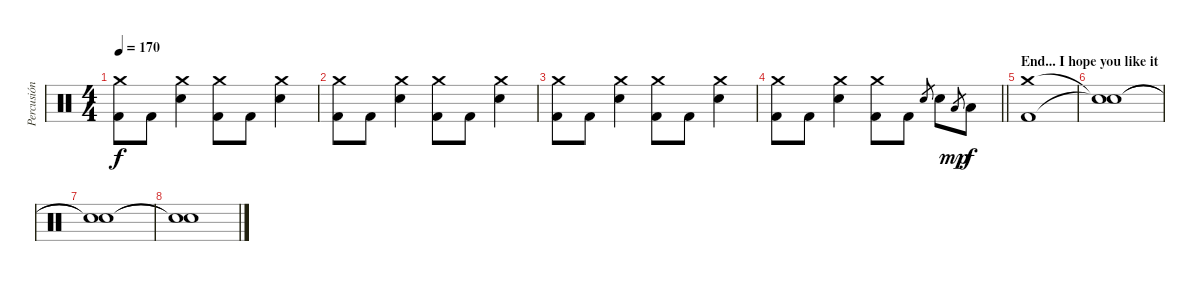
\track ("Percusión" "Percusión") {instrument percussion}
\staff {score}
\articulation defaults
\ts (4 4)
\tempo 170
\clef neutral
\ks c
("Crash medium (hit)" "Kick (hit) 2").8{dy f} "Kick (hit) 2".8 ("Crash medium (hit)" "Electric Snare (hit)").4 ("Crash medium (hit)" "Kick (hit) 2").8 "Kick (hit) 2".8 ("Crash medium (hit)" "Electric Snare (hit)").4 |
("Crash medium (hit)" "Kick (hit) 2").8 "Kick (hit) 2".8 ("Crash medium (hit)" "Electric Snare (hit)").4 ("Crash medium (hit)" "Kick (hit) 2").8 "Kick (hit) 2".8 ("Crash medium (hit)" "Electric Snare (hit)").4 |
("Crash medium (hit)" "Kick (hit) 2").8 "Kick (hit) 2".8 ("Crash medium (hit)" "Electric Snare (hit)").4 ("Crash medium (hit)" "Kick (hit) 2").8 "Kick (hit) 2".8 ("Crash medium (hit)" "Electric Snare (hit)").4 |
\barLineRight lightlight
("Crash medium (hit)" "Kick (hit) 2").8 "Kick (hit) 2".8 ("Crash medium (hit)" "Electric Snare (hit)").4 ("Crash medium (hit)" "Kick (hit) 2").8 "Kick (hit) 2".8 "Electric Snare (hit)".8{gr} "Electric Snare (hit)".8 "Low Tom (hit)".8{gr dy mp} "Low Tom (hit)".8{dy f} |
\section ("" "End... I hope you like it")
("Crash medium (hit)" "Kick (hit) 2").1 |
("Snare (hit)"{t} "Snare (hit)"{t}).1 |
("Snare (hit)"{t} "Snare (hit)"{t}).1 |
("Snare (hit)"{t} "Snare (hit)"{t}).1
